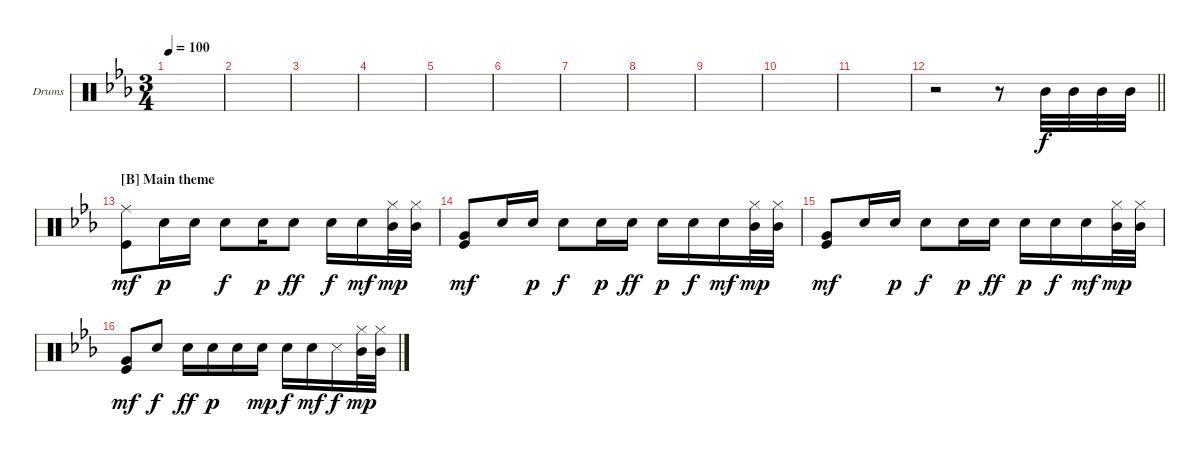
\defaultSystemsLayout 4
\bracketExtendMode groupsimilarinstruments
\firstSystemTrackNameOrientation horizontal
\otherSystemsTrackNameOrientation horizontal
\track ("Drumkit" "Drums") {instrument percussion}
\staff {score}
\articulation defaults
\ts (3 4)
\tempo 100
\clef neutral
\scale
0.333333
\ks cminor
|
\scale
0.333333 |
\scale
0.333333 |
\scale
0.333333 |
\scale
0.333333 |
\scale
0.333333 |
\scale
0.333333 |
\scale
0.333333 |
\scale
0.333333 |
\scale
0.333333 |
\scale
0.333333 |
\scale
0.333333
\barLineRight lightlight
r.2 r.8 "Mid Tom (hit)".32 "Mid Tom (hit)".32 "Mid Tom (hit)".32 "Mid Tom (hit)".32 |
\section ("B" "Main theme")
\scale
0.333333 ("Kick (hit)" "Ride (middle)").8{dy mf} "Snare (hit) 2".16{dy p} "Snare (hit) 2".16 "Snare (hit) 2".8{dy f} "Snare (hit) 2".16{dy p} "Snare (hit) 2".8{dy ff} "Snare (hit) 2".16{dy f} "Snare (hit) 2".16{dy mf} ("Hi-Hat (closed)" "Mid Tom (hit)").32{dy mp} ("Hi-Hat (closed)" "Mid Tom (hit)").32 |
("Kick (hit)" "Very Low Tom (hit)").8{dy mf} "Snare (hit) 2".16 "Snare (hit) 2".16{dy p} "Snare (hit) 2".8{dy f} "Snare (hit) 2".16{dy p} "Snare (hit) 2".16{dy ff} "Snare (hit) 2".16{dy p} "Snare (hit) 2".16{dy f} "Snare (hit) 2".16{dy mf} ("Mid Tom (hit)" "Hi-Hat (closed)").32{dy mp} ("Mid Tom (hit)" "Hi-Hat (closed)").32 |
("Kick (hit)" "Very Low Tom (hit)").8{dy mf} "Snare (hit) 2".16 "Snare (hit) 2".16{dy p} "Snare (hit) 2".8{dy f} "Snare (hit) 2".16{dy p} "Snare (hit) 2".16{dy ff} "Snare (hit) 2".16{dy p} "Snare (hit) 2".16{dy f} "Snare (hit) 2".16{dy mf} ("Mid Tom (hit)" "Hi-Hat (closed)").32{dy mp} ("Mid Tom (hit)" "Hi-Hat (closed)").32 |
("Kick (hit)" "Very Low Tom (hit)").8{dy mf} "Snare (hit) 2".8{dy f} "Snare (hit) 2".16{dy ff} "Snare (hit) 2".16{dy p} "Snare (hit) 2".16 "Snare (hit) 2".16{dy mp} "Snare (hit) 2".16{dy f} "Snare (hit) 2".16{dy mf} "Snare (side stick) 3".16{dy f} ("Mid Tom (hit)" "Hi-Hat (closed)").32{dy mp} ("Mid Tom (hit)" "Hi-Hat (closed)").32
